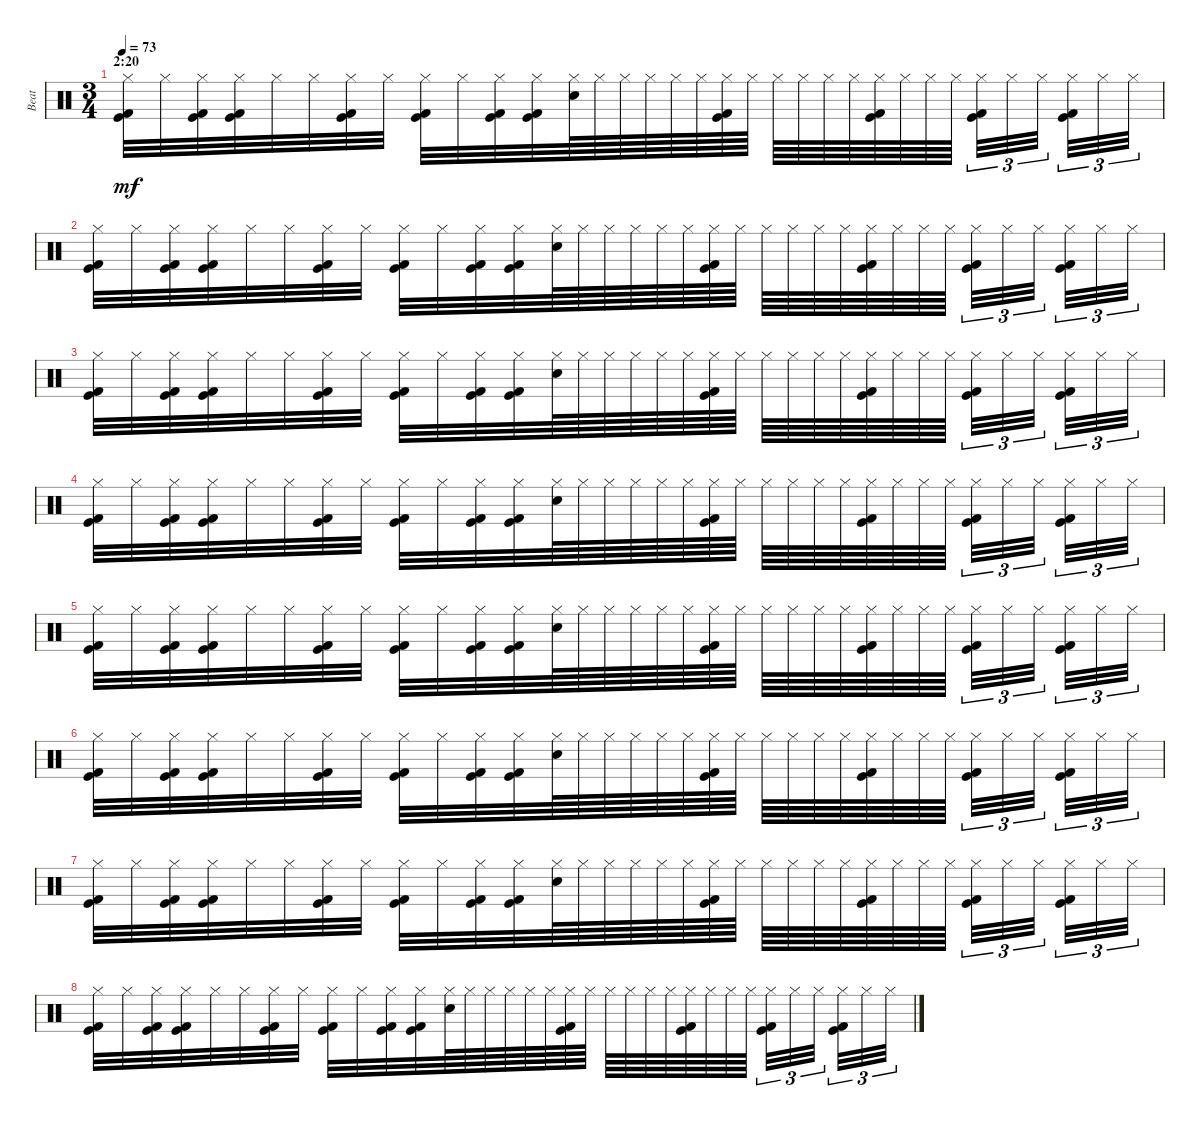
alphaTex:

\track ("Beat" "Beat") {instrument percussion}
\staff {score}
\articulation defaults
\ts (3 4)
\section ("" "2:20")
\tempo 73
\clef neutral
\ks c
("Hi-Hat (closed)" "Kick (hit)" "Kick (hit) 2").32{dy mf} "Hi-Hat (closed)".32 ("Hi-Hat (closed)" "Kick (hit)" "Kick (hit) 2").32 ("Hi-Hat (closed)" "Kick (hit)" "Kick (hit) 2").32 "Hi-Hat (closed)".32 "Hi-Hat (closed)".32 ("Hi-Hat (closed)" "Kick (hit)" "Kick (hit) 2").32 "Hi-Hat (closed)".32 ("Hi-Hat (closed)" "Kick (hit)" "Kick (hit) 2").32 "Hi-Hat (closed)".32 ("Hi-Hat (closed)" "Kick (hit)" "Kick (hit) 2").32 ("Hi-Hat (closed)" "Kick (hit)" "Kick (hit) 2").32 ("Hi-Hat (closed)" "Snare (hit) 2").64 "Hi-Hat (closed)".64 "Hi-Hat (closed)".64 "Hi-Hat (closed)".64 "Hi-Hat (closed)".64 "Hi-Hat (closed)".64 ("Hi-Hat (closed)" "Kick (hit)" "Kick (hit) 2").64 "Hi-Hat (closed)".64 "Hi-Hat (closed)".64 "Hi-Hat (closed)".64 "Hi-Hat (closed)".64 "Hi-Hat (closed)".64 ("Hi-Hat (closed)" "Kick (hit)" "Kick (hit) 2").64 "Hi-Hat (closed)".64 "Hi-Hat (closed)".64 "Hi-Hat (closed)".64{beam splitsecondary} ("Hi-Hat (closed)" "Kick (hit)" "Kick (hit) 2").32{tu (3 2)} "Hi-Hat (closed)".32{tu (3 2)} "Hi-Hat (closed)".32{tu (3 2) beam splitsecondary} ("Hi-Hat (closed)" "Kick (hit)" "Kick (hit) 2").32{tu (3 2)} "Hi-Hat (closed)".32{tu (3 2)} "Hi-Hat (closed)".32{tu (3 2)} |
("Hi-Hat (closed)" "Kick (hit)" "Kick (hit) 2").32 "Hi-Hat (closed)".32 ("Hi-Hat (closed)" "Kick (hit)" "Kick (hit) 2").32 ("Hi-Hat (closed)" "Kick (hit)" "Kick (hit) 2").32 "Hi-Hat (closed)".32 "Hi-Hat (closed)".32 ("Hi-Hat (closed)" "Kick (hit)" "Kick (hit) 2").32 "Hi-Hat (closed)".32 ("Hi-Hat (closed)" "Kick (hit)" "Kick (hit) 2").32 "Hi-Hat (closed)".32 ("Hi-Hat (closed)" "Kick (hit)" "Kick (hit) 2").32 ("Hi-Hat (closed)" "Kick (hit)" "Kick (hit) 2").32 ("Hi-Hat (closed)" "Snare (hit) 2").64 "Hi-Hat (closed)".64 "Hi-Hat (closed)".64 "Hi-Hat (closed)".64 "Hi-Hat (closed)".64 "Hi-Hat (closed)".64 ("Hi-Hat (closed)" "Kick (hit)" "Kick (hit) 2").64 "Hi-Hat (closed)".64 "Hi-Hat (closed)".64 "Hi-Hat (closed)".64 "Hi-Hat (closed)".64 "Hi-Hat (closed)".64 ("Hi-Hat (closed)" "Kick (hit)" "Kick (hit) 2").64 "Hi-Hat (closed)".64 "Hi-Hat (closed)".64 "Hi-Hat (closed)".64{beam splitsecondary} ("Hi-Hat (closed)" "Kick (hit)" "Kick (hit) 2").32{tu (3 2)} "Hi-Hat (closed)".32{tu (3 2)} "Hi-Hat (closed)".32{tu (3 2) beam splitsecondary} ("Hi-Hat (closed)" "Kick (hit)" "Kick (hit) 2").32{tu (3 2)} "Hi-Hat (closed)".32{tu (3 2)} "Hi-Hat (closed)".32{tu (3 2)} |
("Hi-Hat (closed)" "Kick (hit)" "Kick (hit) 2").32 "Hi-Hat (closed)".32 ("Hi-Hat (closed)" "Kick (hit)" "Kick (hit) 2").32 ("Hi-Hat (closed)" "Kick (hit)" "Kick (hit) 2").32 "Hi-Hat (closed)".32 "Hi-Hat (closed)".32 ("Hi-Hat (closed)" "Kick (hit)" "Kick (hit) 2").32 "Hi-Hat (closed)".32 ("Hi-Hat (closed)" "Kick (hit)" "Kick (hit) 2").32 "Hi-Hat (closed)".32 ("Hi-Hat (closed)" "Kick (hit)" "Kick (hit) 2").32 ("Hi-Hat (closed)" "Kick (hit)" "Kick (hit) 2").32 ("Hi-Hat (closed)" "Snare (hit) 2").64 "Hi-Hat (closed)".64 "Hi-Hat (closed)".64 "Hi-Hat (closed)".64 "Hi-Hat (closed)".64 "Hi-Hat (closed)".64 ("Hi-Hat (closed)" "Kick (hit)" "Kick (hit) 2").64 "Hi-Hat (closed)".64 "Hi-Hat (closed)".64 "Hi-Hat (closed)".64 "Hi-Hat (closed)".64 "Hi-Hat (closed)".64 ("Hi-Hat (closed)" "Kick (hit)" "Kick (hit) 2").64 "Hi-Hat (closed)".64 "Hi-Hat (closed)".64 "Hi-Hat (closed)".64{beam splitsecondary} ("Hi-Hat (closed)" "Kick (hit)" "Kick (hit) 2").32{tu (3 2)} "Hi-Hat (closed)".32{tu (3 2)} "Hi-Hat (closed)".32{tu (3 2) beam splitsecondary} ("Hi-Hat (closed)" "Kick (hit)" "Kick (hit) 2").32{tu (3 2)} "Hi-Hat (closed)".32{tu (3 2)} "Hi-Hat (closed)".32{tu (3 2)} |
("Hi-Hat (closed)" "Kick (hit)" "Kick (hit) 2").32 "Hi-Hat (closed)".32 ("Hi-Hat (closed)" "Kick (hit)" "Kick (hit) 2").32 ("Hi-Hat (closed)" "Kick (hit)" "Kick (hit) 2").32 "Hi-Hat (closed)".32 "Hi-Hat (closed)".32 ("Hi-Hat (closed)" "Kick (hit)" "Kick (hit) 2").32 "Hi-Hat (closed)".32 ("Hi-Hat (closed)" "Kick (hit)" "Kick (hit) 2").32 "Hi-Hat (closed)".32 ("Hi-Hat (closed)" "Kick (hit)" "Kick (hit) 2").32 ("Hi-Hat (closed)" "Kick (hit)" "Kick (hit) 2").32 ("Hi-Hat (closed)" "Snare (hit) 2").64 "Hi-Hat (closed)".64 "Hi-Hat (closed)".64 "Hi-Hat (closed)".64 "Hi-Hat (closed)".64 "Hi-Hat (closed)".64 ("Hi-Hat (closed)" "Kick (hit)" "Kick (hit) 2").64 "Hi-Hat (closed)".64 "Hi-Hat (closed)".64 "Hi-Hat (closed)".64 "Hi-Hat (closed)".64 "Hi-Hat (closed)".64 ("Hi-Hat (closed)" "Kick (hit)" "Kick (hit) 2").64 "Hi-Hat (closed)".64 "Hi-Hat (closed)".64 "Hi-Hat (closed)".64{beam splitsecondary} ("Hi-Hat (closed)" "Kick (hit)" "Kick (hit) 2").32{tu (3 2)} "Hi-Hat (closed)".32{tu (3 2)} "Hi-Hat (closed)".32{tu (3 2) beam splitsecondary} ("Hi-Hat (closed)" "Kick (hit)" "Kick (hit) 2").32{tu (3 2)} "Hi-Hat (closed)".32{tu (3 2)} "Hi-Hat (closed)".32{tu (3 2)} |
("Hi-Hat (closed)" "Kick (hit)" "Kick (hit) 2").32 "Hi-Hat (closed)".32 ("Hi-Hat (closed)" "Kick (hit)" "Kick (hit) 2").32 ("Hi-Hat (closed)" "Kick (hit)" "Kick (hit) 2").32 "Hi-Hat (closed)".32 "Hi-Hat (closed)".32 ("Hi-Hat (closed)" "Kick (hit)" "Kick (hit) 2").32 "Hi-Hat (closed)".32 ("Hi-Hat (closed)" "Kick (hit)" "Kick (hit) 2").32 "Hi-Hat (closed)".32 ("Hi-Hat (closed)" "Kick (hit)" "Kick (hit) 2").32 ("Hi-Hat (closed)" "Kick (hit)" "Kick (hit) 2").32 ("Hi-Hat (closed)" "Snare (hit) 2").64 "Hi-Hat (closed)".64 "Hi-Hat (closed)".64 "Hi-Hat (closed)".64 "Hi-Hat (closed)".64 "Hi-Hat (closed)".64 ("Hi-Hat (closed)" "Kick (hit)" "Kick (hit) 2").64 "Hi-Hat (closed)".64 "Hi-Hat (closed)".64 "Hi-Hat (closed)".64 "Hi-Hat (closed)".64 "Hi-Hat (closed)".64 ("Hi-Hat (closed)" "Kick (hit)" "Kick (hit) 2").64 "Hi-Hat (closed)".64 "Hi-Hat (closed)".64 "Hi-Hat (closed)".64{beam splitsecondary} ("Hi-Hat (closed)" "Kick (hit)" "Kick (hit) 2").32{tu (3 2)} "Hi-Hat (closed)".32{tu (3 2)} "Hi-Hat (closed)".32{tu (3 2) beam splitsecondary} ("Hi-Hat (closed)" "Kick (hit)" "Kick (hit) 2").32{tu (3 2)} "Hi-Hat (closed)".32{tu (3 2)} "Hi-Hat (closed)".32{tu (3 2)} |
("Hi-Hat (closed)" "Kick (hit)" "Kick (hit) 2").32 "Hi-Hat (closed)".32 ("Hi-Hat (closed)" "Kick (hit)" "Kick (hit) 2").32 ("Hi-Hat (closed)" "Kick (hit)" "Kick (hit) 2").32 "Hi-Hat (closed)".32 "Hi-Hat (closed)".32 ("Hi-Hat (closed)" "Kick (hit)" "Kick (hit) 2").32 "Hi-Hat (closed)".32 ("Hi-Hat (closed)" "Kick (hit)" "Kick (hit) 2").32 "Hi-Hat (closed)".32 ("Hi-Hat (closed)" "Kick (hit)" "Kick (hit) 2").32 ("Hi-Hat (closed)" "Kick (hit)" "Kick (hit) 2").32 ("Hi-Hat (closed)" "Snare (hit) 2").64 "Hi-Hat (closed)".64 "Hi-Hat (closed)".64 "Hi-Hat (closed)".64 "Hi-Hat (closed)".64 "Hi-Hat (closed)".64 ("Hi-Hat (closed)" "Kick (hit)" "Kick (hit) 2").64 "Hi-Hat (closed)".64 "Hi-Hat (closed)".64 "Hi-Hat (closed)".64 "Hi-Hat (closed)".64 "Hi-Hat (closed)".64 ("Hi-Hat (closed)" "Kick (hit)" "Kick (hit) 2").64 "Hi-Hat (closed)".64 "Hi-Hat (closed)".64 "Hi-Hat (closed)".64{beam splitsecondary} ("Hi-Hat (closed)" "Kick (hit)" "Kick (hit) 2").32{tu (3 2)} "Hi-Hat (closed)".32{tu (3 2)} "Hi-Hat (closed)".32{tu (3 2) beam splitsecondary} ("Hi-Hat (closed)" "Kick (hit)" "Kick (hit) 2").32{tu (3 2)} "Hi-Hat (closed)".32{tu (3 2)} "Hi-Hat (closed)".32{tu (3 2)} |
("Hi-Hat (closed)" "Kick (hit)" "Kick (hit) 2").32 "Hi-Hat (closed)".32 ("Hi-Hat (closed)" "Kick (hit)" "Kick (hit) 2").32 ("Hi-Hat (closed)" "Kick (hit)" "Kick (hit) 2").32 "Hi-Hat (closed)".32 "Hi-Hat (closed)".32 ("Hi-Hat (closed)" "Kick (hit)" "Kick (hit) 2").32 "Hi-Hat (closed)".32 ("Hi-Hat (closed)" "Kick (hit)" "Kick (hit) 2").32 "Hi-Hat (closed)".32 ("Hi-Hat (closed)" "Kick (hit)" "Kick (hit) 2").32 ("Hi-Hat (closed)" "Kick (hit)" "Kick (hit) 2").32 ("Hi-Hat (closed)" "Snare (hit) 2").64 "Hi-Hat (closed)".64 "Hi-Hat (closed)".64 "Hi-Hat (closed)".64 "Hi-Hat (closed)".64 "Hi-Hat (closed)".64 ("Hi-Hat (closed)" "Kick (hit)" "Kick (hit) 2").64 "Hi-Hat (closed)".64 "Hi-Hat (closed)".64 "Hi-Hat (closed)".64 "Hi-Hat (closed)".64 "Hi-Hat (closed)".64 ("Hi-Hat (closed)" "Kick (hit)" "Kick (hit) 2").64 "Hi-Hat (closed)".64 "Hi-Hat (closed)".64 "Hi-Hat (closed)".64{beam splitsecondary} ("Hi-Hat (closed)" "Kick (hit)" "Kick (hit) 2").32{tu (3 2)} "Hi-Hat (closed)".32{tu (3 2)} "Hi-Hat (closed)".32{tu (3 2) beam splitsecondary} ("Hi-Hat (closed)" "Kick (hit)" "Kick (hit) 2").32{tu (3 2)} "Hi-Hat (closed)".32{tu (3 2)} "Hi-Hat (closed)".32{tu (3 2)} |
("Hi-Hat (closed)" "Kick (hit)" "Kick (hit) 2").32 "Hi-Hat (closed)".32 ("Hi-Hat (closed)" "Kick (hit)" "Kick (hit) 2").32 ("Hi-Hat (closed)" "Kick (hit)" "Kick (hit) 2").32 "Hi-Hat (closed)".32 "Hi-Hat (closed)".32 ("Hi-Hat (closed)" "Kick (hit)" "Kick (hit) 2").32 "Hi-Hat (closed)".32 ("Hi-Hat (closed)" "Kick (hit)" "Kick (hit) 2").32 "Hi-Hat (closed)".32 ("Hi-Hat (closed)" "Kick (hit)" "Kick (hit) 2").32 ("Hi-Hat (closed)" "Kick (hit)" "Kick (hit) 2").32 ("Hi-Hat (closed)" "Snare (hit) 2").64 "Hi-Hat (closed)".64 "Hi-Hat (closed)".64 "Hi-Hat (closed)".64 "Hi-Hat (closed)".64 "Hi-Hat (closed)".64 ("Hi-Hat (closed)" "Kick (hit)" "Kick (hit) 2").64 "Hi-Hat (closed)".64 "Hi-Hat (closed)".64 "Hi-Hat (closed)".64 "Hi-Hat (closed)".64 "Hi-Hat (closed)".64 ("Hi-Hat (closed)" "Kick (hit)" "Kick (hit) 2").64 "Hi-Hat (closed)".64 "Hi-Hat (closed)".64 "Hi-Hat (closed)".64{beam splitsecondary} ("Hi-Hat (closed)" "Kick (hit)" "Kick (hit) 2").32{tu (3 2)} "Hi-Hat (closed)".32{tu (3 2)} "Hi-Hat (closed)".32{tu (3 2) beam splitsecondary} ("Hi-Hat (closed)" "Kick (hit)" "Kick (hit) 2").32{tu (3 2)} "Hi-Hat (closed)".32{tu (3 2)} "Hi-Hat (closed)".32{tu (3 2)}
